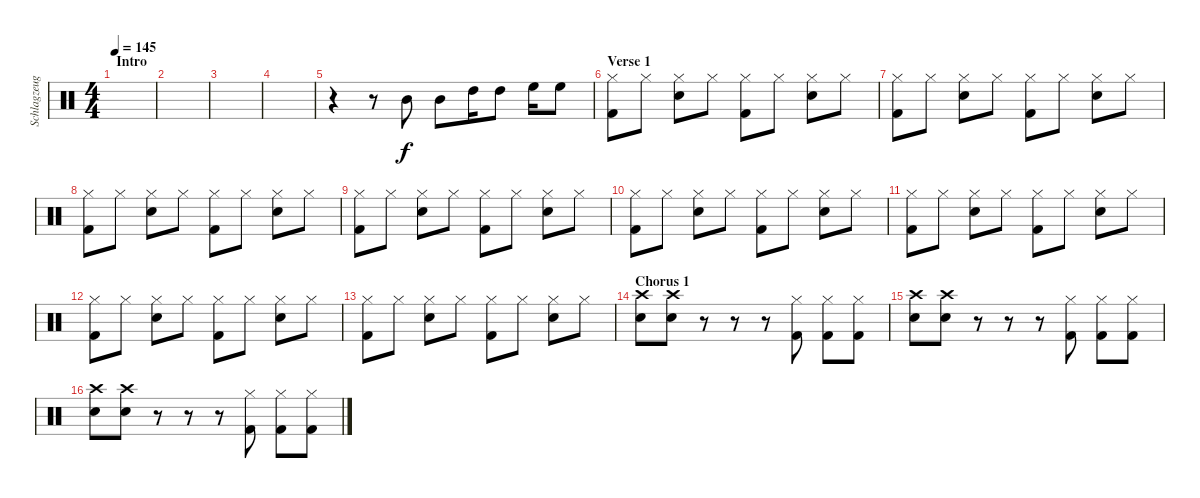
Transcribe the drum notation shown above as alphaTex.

\track ("Schlagzeug" "Schlagzeug") {instrument percussion}
\staff {score}
\articulation defaults
\ts (4 4)
\section ("" "Intro")
\tempo 145
\clef neutral
\ks c
|
|
|
|
r.4 r.8 "Mid Tom (hit)".8 "Mid Tom (hit)".8 "High Tom (hit)".16 "High Tom (hit)".8 "High Floor Tom (hit)".16 "High Floor Tom (hit)".8 |
\section ("" "Verse 1")
("Kick (hit) 2" "Hi-Hat (closed)").8 "Hi-Hat (closed)".8 ("Snare (hit) 2" "Hi-Hat (closed)").8 "Hi-Hat (closed)".8 ("Kick (hit) 2" "Hi-Hat (closed)").8 "Hi-Hat (closed)".8 ("Snare (hit) 2" "Hi-Hat (closed)").8 "Hi-Hat (closed)".8 |
("Kick (hit) 2" "Hi-Hat (closed)").8 "Hi-Hat (closed)".8 ("Snare (hit) 2" "Hi-Hat (closed)").8 "Hi-Hat (closed)".8 ("Kick (hit) 2" "Hi-Hat (closed)").8 "Hi-Hat (closed)".8 ("Snare (hit) 2" "Hi-Hat (closed)").8 "Hi-Hat (closed)".8 |
("Kick (hit) 2" "Hi-Hat (closed)").8 "Hi-Hat (closed)".8 ("Snare (hit) 2" "Hi-Hat (closed)").8 "Hi-Hat (closed)".8 ("Kick (hit) 2" "Hi-Hat (closed)").8 "Hi-Hat (closed)".8 ("Snare (hit) 2" "Hi-Hat (closed)").8 "Hi-Hat (closed)".8 |
("Kick (hit) 2" "Hi-Hat (closed)").8 "Hi-Hat (closed)".8 ("Snare (hit) 2" "Hi-Hat (closed)").8 "Hi-Hat (closed)".8 ("Kick (hit) 2" "Hi-Hat (closed)").8 "Hi-Hat (closed)".8 ("Snare (hit) 2" "Hi-Hat (closed)").8 "Hi-Hat (closed)".8 |
("Kick (hit) 2" "Hi-Hat (closed)").8 "Hi-Hat (closed)".8 ("Snare (hit) 2" "Hi-Hat (closed)").8 "Hi-Hat (closed)".8 ("Kick (hit) 2" "Hi-Hat (closed)").8 "Hi-Hat (closed)".8 ("Snare (hit) 2" "Hi-Hat (closed)").8 "Hi-Hat (closed)".8 |
("Kick (hit) 2" "Hi-Hat (closed)").8 "Hi-Hat (closed)".8 ("Snare (hit) 2" "Hi-Hat (closed)").8 "Hi-Hat (closed)".8 ("Kick (hit) 2" "Hi-Hat (closed)").8 "Hi-Hat (closed)".8 ("Snare (hit) 2" "Hi-Hat (closed)").8 "Hi-Hat (closed)".8 |
("Kick (hit) 2" "Hi-Hat (closed)").8 "Hi-Hat (closed)".8 ("Snare (hit) 2" "Hi-Hat (closed)").8 "Hi-Hat (closed)".8 ("Kick (hit) 2" "Hi-Hat (closed)").8 "Hi-Hat (closed)".8 ("Snare (hit) 2" "Hi-Hat (closed)").8 "Hi-Hat (closed)".8 |
("Kick (hit) 2" "Hi-Hat (closed)").8 "Hi-Hat (closed)".8 ("Snare (hit) 2" "Hi-Hat (closed)").8 "Hi-Hat (closed)".8 ("Kick (hit) 2" "Hi-Hat (closed)").8 "Hi-Hat (closed)".8 ("Snare (hit) 2" "Hi-Hat (closed)").8 "Hi-Hat (closed)".8 |
\section ("" "Chorus 1")
("Snare (hit) 2" "Crash high (hit)").8 ("Snare (hit) 2" "Crash high (hit)").8 r.8 r.8 r.8 ("Kick (hit) 2" "Hi-Hat (closed)").8 ("Kick (hit) 2" "Hi-Hat (closed)").8 ("Kick (hit) 2" "Hi-Hat (closed)").8 |
("Snare (hit) 2" "Crash high (hit)").8 ("Snare (hit) 2" "Crash high (hit)").8 r.8 r.8 r.8 ("Kick (hit) 2" "Hi-Hat (closed)").8 ("Kick (hit) 2" "Hi-Hat (closed)").8 ("Kick (hit) 2" "Hi-Hat (closed)").8 |
("Snare (hit) 2" "Crash high (hit)").8 ("Snare (hit) 2" "Crash high (hit)").8 r.8 r.8 r.8 ("Kick (hit) 2" "Hi-Hat (closed)").8 ("Kick (hit) 2" "Hi-Hat (closed)").8 ("Kick (hit) 2" "Hi-Hat (closed)").8
